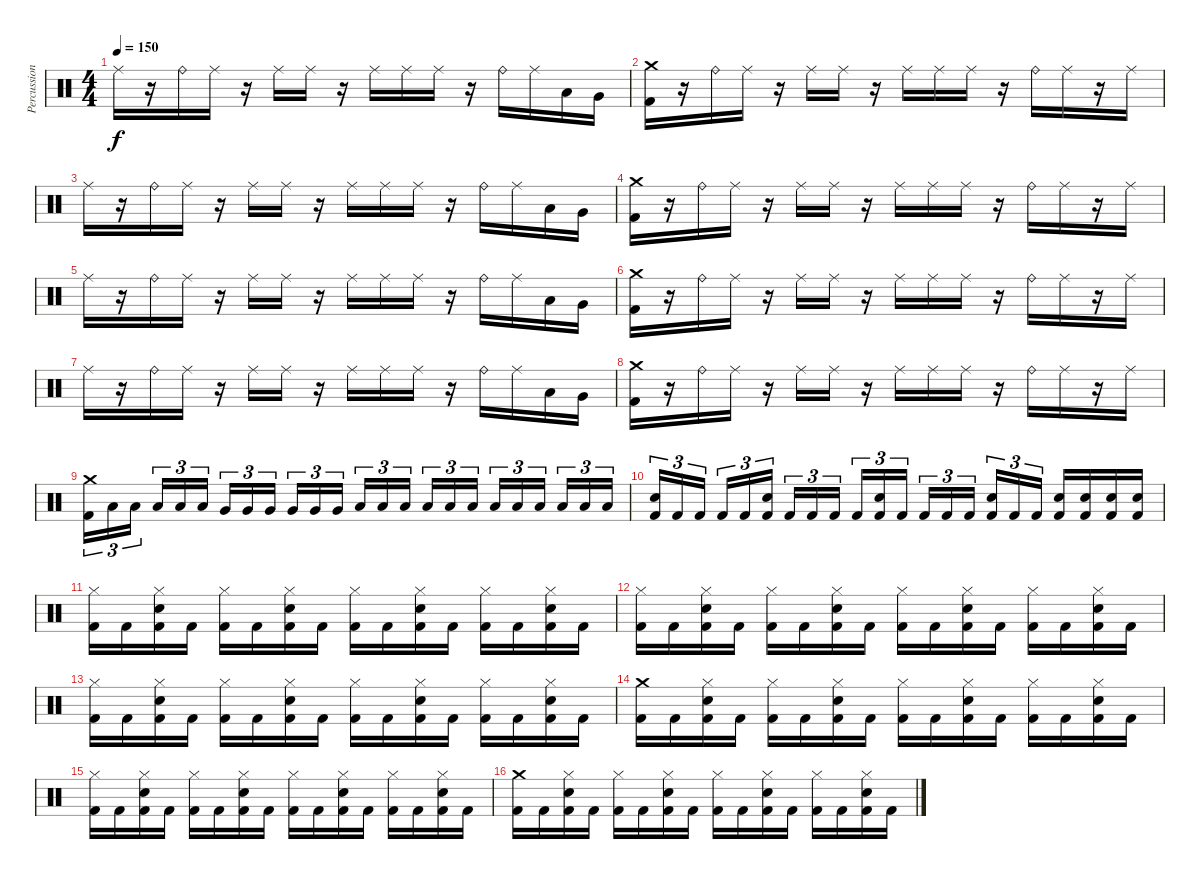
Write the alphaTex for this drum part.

\track ("Percussioni" "Percussion") {instrument percussion}
\staff {score}
\articulation defaults
\ts (4 4)
\tempo 150
\clef neutral
\ks c "Ride (middle)".16{dy f}
r.16 "Ride (bell)".16 "Ride (middle)".16 r.16 "Ride (middle)".16 "Ride (middle)".16 r.16 "Ride (middle)".16 "Ride (middle)".16 "Ride (middle)".16 r.16 "Ride (bell)".16 "Ride (middle)".16 "Low Tom (hit)".16 "Very Low Tom (hit)".16 |
("Crash medium (hit)" "Kick (hit) 2").16 r.16 "Ride (bell)".16 "Ride (middle)".16 r.16 "Ride (middle)".16 "Ride (middle)".16 r.16 "Ride (middle)".16 "Ride (middle)".16 "Ride (middle)".16 r.16 "Ride (bell)".16 "Ride (middle)".16 r.16 "Ride (middle)".16 |
"Ride (middle)".16 r.16 "Ride (bell)".16 "Ride (middle)".16 r.16 "Ride (middle)".16 "Ride (middle)".16 r.16 "Ride (middle)".16 "Ride (middle)".16 "Ride (middle)".16 r.16 "Ride (bell)".16 "Ride (middle)".16 "Low Tom (hit)".16 "Very Low Tom (hit)".16 |
("Crash medium (hit)" "Kick (hit) 2").16 r.16 "Ride (bell)".16 "Ride (middle)".16 r.16 "Ride (middle)".16 "Ride (middle)".16 r.16 "Ride (middle)".16 "Ride (middle)".16 "Ride (middle)".16 r.16 "Ride (bell)".16 "Ride (middle)".16 r.16 "Ride (middle)".16 |
"Ride (middle)".16 r.16 "Ride (bell)".16 "Ride (middle)".16 r.16 "Ride (middle)".16 "Ride (middle)".16 r.16 "Ride (middle)".16 "Ride (middle)".16 "Ride (middle)".16 r.16 "Ride (bell)".16 "Ride (middle)".16 "Low Tom (hit)".16 "Very Low Tom (hit)".16 |
("Crash medium (hit)" "Kick (hit) 2").16 r.16 "Ride (bell)".16 "Ride (middle)".16 r.16 "Ride (middle)".16 "Ride (middle)".16 r.16 "Ride (middle)".16 "Ride (middle)".16 "Ride (middle)".16 r.16 "Ride (bell)".16 "Ride (middle)".16 r.16 "Ride (middle)".16 |
"Ride (middle)".16 r.16 "Ride (bell)".16 "Ride (middle)".16 r.16 "Ride (middle)".16 "Ride (middle)".16 r.16 "Ride (middle)".16 "Ride (middle)".16 "Ride (middle)".16 r.16 "Ride (bell)".16 "Ride (middle)".16 "Low Tom (hit)".16 "Very Low Tom (hit)".16 |
("Crash medium (hit)" "Kick (hit) 2").16 r.16 "Ride (bell)".16 "Ride (middle)".16 r.16 "Ride (middle)".16 "Ride (middle)".16 r.16 "Ride (middle)".16 "Ride (middle)".16 "Ride (middle)".16 r.16 "Ride (bell)".16 "Ride (middle)".16 r.16 "Ride (middle)".16 |
("Crash medium (hit)" "Kick (hit) 2").16{tu (3 2)} "Low Tom (hit)".16{tu (3 2)} "Low Tom (hit)".16{tu (3 2) beam splitsecondary} "Low Tom (hit)".16{tu (3 2)} "Low Tom (hit)".16{tu (3 2)} "Low Tom (hit)".16{tu (3 2)} "Very Low Tom (hit)".16{tu (3 2)} "Very Low Tom (hit)".16{tu (3 2)} "Very Low Tom (hit)".16{tu (3 2) beam splitsecondary} "Very Low Tom (hit)".16{tu (3 2)} "Very Low Tom (hit)".16{tu (3 2)} "Very Low Tom (hit)".16{tu (3 2)} "Low Floor Tom (hit)".16{tu (3 2)} "Low Floor Tom (hit)".16{tu (3 2)} "Low Floor Tom (hit)".16{tu (3 2) beam splitsecondary} "Low Floor Tom (hit)".16{tu (3 2)} "Low Floor Tom (hit)".16{tu (3 2)} "Low Floor Tom (hit)".16{tu (3 2)} "Low Floor Tom (hit)".16{tu (3 2)} "Low Floor Tom (hit)".16{tu (3 2)} "Low Floor Tom (hit)".16{tu (3 2) beam splitsecondary} "Low Floor Tom (hit)".16{tu (3 2)} "Low Floor Tom (hit)".16{tu (3 2)} "Low Floor Tom (hit)".16{tu (3 2)} |
("Electric Snare (hit)" "Kick (hit) 2").16{tu (3 2)} "Kick (hit) 2".16{tu (3 2)} "Kick (hit) 2".16{tu (3 2) beam splitsecondary} "Kick (hit) 2".16{tu (3 2)} "Kick (hit) 2".16{tu (3 2)} ("Electric Snare (hit)" "Kick (hit) 2").16{tu (3 2)} "Kick (hit) 2".16{tu (3 2)} "Kick (hit) 2".16{tu (3 2)} "Kick (hit) 2".16{tu (3 2) beam splitsecondary} "Kick (hit) 2".16{tu (3 2)} ("Electric Snare (hit)" "Kick (hit) 2").16{tu (3 2)} "Kick (hit) 2".16{tu (3 2)} "Kick (hit) 2".16{tu (3 2)} "Kick (hit) 2".16{tu (3 2)} "Kick (hit) 2".16{tu (3 2) beam splitsecondary} ("Electric Snare (hit)" "Kick (hit) 2").16{tu (3 2)} "Kick (hit) 2".16{tu (3 2)} "Kick (hit) 2".16{tu (3 2)} ("Electric Snare (hit)" "Kick (hit) 2").16 ("Electric Snare (hit)" "Kick (hit) 2").16 ("Electric Snare (hit)" "Kick (hit) 2").16 ("Electric Snare (hit)" "Kick (hit) 2").16 |
("Hi-Hat (closed)" "Kick (hit) 2").16 "Kick (hit) 2".16 ("Hi-Hat (closed)" "Electric Snare (hit)" "Kick (hit) 2").16 "Kick (hit) 2".16 ("Hi-Hat (closed)" "Kick (hit) 2").16 "Kick (hit) 2".16 ("Hi-Hat (closed)" "Electric Snare (hit)" "Kick (hit) 2").16 "Kick (hit) 2".16 ("Hi-Hat (closed)" "Kick (hit) 2").16 "Kick (hit) 2".16 ("Hi-Hat (closed)" "Electric Snare (hit)" "Kick (hit) 2").16 "Kick (hit) 2".16 ("Hi-Hat (closed)" "Kick (hit) 2").16 "Kick (hit) 2".16 ("Hi-Hat (closed)" "Electric Snare (hit)" "Kick (hit) 2").16 "Kick (hit) 2".16 |
("Hi-Hat (closed)" "Kick (hit) 2").16 "Kick (hit) 2".16 ("Hi-Hat (closed)" "Electric Snare (hit)" "Kick (hit) 2").16 "Kick (hit) 2".16 ("Hi-Hat (closed)" "Kick (hit) 2").16 "Kick (hit) 2".16 ("Hi-Hat (closed)" "Electric Snare (hit)" "Kick (hit) 2").16 "Kick (hit) 2".16 ("Hi-Hat (closed)" "Kick (hit) 2").16 "Kick (hit) 2".16 ("Hi-Hat (closed)" "Electric Snare (hit)" "Kick (hit) 2").16 "Kick (hit) 2".16 ("Hi-Hat (closed)" "Kick (hit) 2").16 "Kick (hit) 2".16 ("Hi-Hat (closed)" "Electric Snare (hit)" "Kick (hit) 2").16 "Kick (hit) 2".16 |
("Hi-Hat (closed)" "Kick (hit) 2").16 "Kick (hit) 2".16 ("Hi-Hat (closed)" "Electric Snare (hit)" "Kick (hit) 2").16 "Kick (hit) 2".16 ("Hi-Hat (closed)" "Kick (hit) 2").16 "Kick (hit) 2".16 ("Hi-Hat (closed)" "Electric Snare (hit)" "Kick (hit) 2").16 "Kick (hit) 2".16 ("Hi-Hat (closed)" "Kick (hit) 2").16 "Kick (hit) 2".16 ("Hi-Hat (closed)" "Electric Snare (hit)" "Kick (hit) 2").16 "Kick (hit) 2".16 ("Hi-Hat (closed)" "Kick (hit) 2").16 "Kick (hit) 2".16 ("Hi-Hat (closed)" "Electric Snare (hit)" "Kick (hit) 2").16 "Kick (hit) 2".16 |
("Crash medium (hit)" "Kick (hit) 2").16 "Kick (hit) 2".16 ("Hi-Hat (closed)" "Electric Snare (hit)" "Kick (hit) 2").16 "Kick (hit) 2".16 ("Hi-Hat (closed)" "Kick (hit) 2").16 "Kick (hit) 2".16 ("Hi-Hat (closed)" "Electric Snare (hit)" "Kick (hit) 2").16 "Kick (hit) 2".16 ("Hi-Hat (closed)" "Kick (hit) 2").16 "Kick (hit) 2".16 ("Hi-Hat (closed)" "Electric Snare (hit)" "Kick (hit) 2").16 "Kick (hit) 2".16 ("Hi-Hat (closed)" "Kick (hit) 2").16 "Kick (hit) 2".16 ("Hi-Hat (closed)" "Electric Snare (hit)" "Kick (hit) 2").16 "Kick (hit) 2".16 |
("Hi-Hat (closed)" "Kick (hit) 2").16 "Kick (hit) 2".16 ("Hi-Hat (closed)" "Electric Snare (hit)" "Kick (hit) 2").16 "Kick (hit) 2".16 ("Hi-Hat (closed)" "Kick (hit) 2").16 "Kick (hit) 2".16 ("Hi-Hat (closed)" "Electric Snare (hit)" "Kick (hit) 2").16 "Kick (hit) 2".16 ("Hi-Hat (closed)" "Kick (hit) 2").16 "Kick (hit) 2".16 ("Hi-Hat (closed)" "Electric Snare (hit)" "Kick (hit) 2").16 "Kick (hit) 2".16 ("Hi-Hat (closed)" "Kick (hit) 2").16 "Kick (hit) 2".16 ("Hi-Hat (closed)" "Electric Snare (hit)" "Kick (hit) 2").16 "Kick (hit) 2".16 |
("Crash medium (hit)" "Kick (hit) 2").16 "Kick (hit) 2".16 ("Hi-Hat (closed)" "Electric Snare (hit)" "Kick (hit) 2").16 "Kick (hit) 2".16 ("Hi-Hat (closed)" "Kick (hit) 2").16 "Kick (hit) 2".16 ("Hi-Hat (closed)" "Electric Snare (hit)" "Kick (hit) 2").16 "Kick (hit) 2".16 ("Hi-Hat (closed)" "Kick (hit) 2").16 "Kick (hit) 2".16 ("Hi-Hat (closed)" "Electric Snare (hit)" "Kick (hit) 2").16 "Kick (hit) 2".16 ("Hi-Hat (closed)" "Kick (hit) 2").16 "Kick (hit) 2".16 ("Hi-Hat (closed)" "Electric Snare (hit)" "Kick (hit) 2").16 "Kick (hit) 2".16
